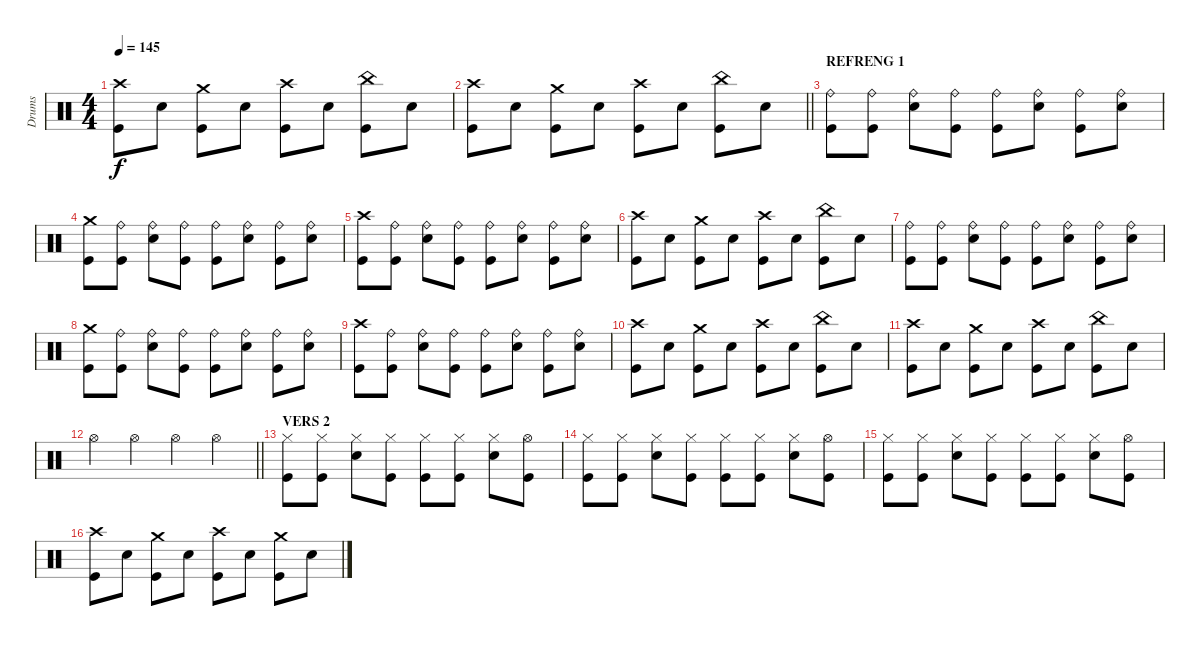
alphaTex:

\track ("Drums" "Drums") {instrument percussion}
\staff {score}
\articulation defaults
\ts (4 4)
\tempo 145
\clef neutral
\ks c
("Crash high (hit)" "Kick (hit)").8{dy f} "Snare (hit) 2".8 ("Crash medium (hit)" "Kick (hit)").8 "Snare (hit) 2".8 ("Crash high (hit)" "Kick (hit)").8 "Snare (hit) 2".8 ("China (hit)" "Kick (hit)").8 "Snare (hit) 2".8 |
\barLineRight lightlight
("Crash high (hit)" "Kick (hit)").8 "Snare (hit) 2".8 ("Crash medium (hit)" "Kick (hit)").8 "Snare (hit) 2".8 ("Crash high (hit)" "Kick (hit)").8 "Snare (hit) 2".8 ("China (hit)" "Kick (hit)").8 "Snare (hit) 2".8 |
\section ("" "REFRENG 1")
("Ride (bell)" "Kick (hit)").8 ("Ride (bell)" "Kick (hit)").8 ("Ride (bell)" "Snare (hit) 2").8 ("Ride (bell)" "Kick (hit)").8 ("Ride (bell)" "Kick (hit)").8 ("Ride (bell)" "Snare (hit) 2").8 ("Ride (bell)" "Kick (hit)").8 ("Ride (bell)" "Snare (hit) 2").8 |
("Crash medium (hit)" "Kick (hit)").8 ("Ride (bell)" "Kick (hit)").8 ("Ride (bell)" "Snare (hit) 2").8 ("Ride (bell)" "Kick (hit)").8 ("Ride (bell)" "Kick (hit)").8 ("Ride (bell)" "Snare (hit) 2").8 ("Ride (bell)" "Kick (hit)").8 ("Ride (bell)" "Snare (hit) 2").8 |
("Crash high (hit)" "Kick (hit)").8 ("Ride (bell)" "Kick (hit)").8 ("Ride (bell)" "Snare (hit) 2").8 ("Ride (bell)" "Kick (hit)").8 ("Ride (bell)" "Kick (hit)").8 ("Ride (bell)" "Snare (hit) 2").8 ("Ride (bell)" "Kick (hit)").8 ("Ride (bell)" "Snare (hit) 2").8 |
("Crash high (hit)" "Kick (hit)").8 "Snare (hit) 2".8 ("Crash medium (hit)" "Kick (hit)").8 "Snare (hit) 2".8 ("Crash high (hit)" "Kick (hit)").8 "Snare (hit) 2".8 ("China (hit)" "Kick (hit)").8 "Snare (hit) 2".8 |
("Ride (bell)" "Kick (hit)").8 ("Ride (bell)" "Kick (hit)").8 ("Ride (bell)" "Snare (hit) 2").8 ("Ride (bell)" "Kick (hit)").8 ("Ride (bell)" "Kick (hit)").8 ("Ride (bell)" "Snare (hit) 2").8 ("Ride (bell)" "Kick (hit)").8 ("Ride (bell)" "Snare (hit) 2").8 |
("Crash medium (hit)" "Kick (hit)").8 ("Ride (bell)" "Kick (hit)").8 ("Ride (bell)" "Snare (hit) 2").8 ("Ride (bell)" "Kick (hit)").8 ("Ride (bell)" "Kick (hit)").8 ("Ride (bell)" "Snare (hit) 2").8 ("Ride (bell)" "Kick (hit)").8 ("Ride (bell)" "Snare (hit) 2").8 |
("Crash high (hit)" "Kick (hit)").8 ("Ride (bell)" "Kick (hit)").8 ("Ride (bell)" "Snare (hit) 2").8 ("Ride (bell)" "Kick (hit)").8 ("Ride (bell)" "Kick (hit)").8 ("Ride (bell)" "Snare (hit) 2").8 ("Ride (bell)" "Kick (hit)").8 ("Ride (bell)" "Snare (hit) 2").8 |
("Crash high (hit)" "Kick (hit)").8 "Snare (hit) 2".8 ("Crash medium (hit)" "Kick (hit)").8 "Snare (hit) 2".8 ("Crash high (hit)" "Kick (hit)").8 "Snare (hit) 2".8 ("China (hit)" "Kick (hit)").8 "Snare (hit) 2".8 |
("Crash high (hit)" "Kick (hit)").8 "Snare (hit) 2".8 ("Crash medium (hit)" "Kick (hit)").8 "Snare (hit) 2".8 ("Crash high (hit)" "Kick (hit)").8 "Snare (hit) 2".8 ("China (hit)" "Kick (hit)").8 "Snare (hit) 2".8 |
\barLineRight lightlight "Hi-Hat (open)".4 "Hi-Hat (open)".4 "Hi-Hat (open)".4 "Hi-Hat (open)".4
|
\section ("" "VERS 2")
("Hi-Hat (closed)" "Kick (hit)").8 ("Hi-Hat (closed)" "Kick (hit)").8 ("Hi-Hat (closed)" "Snare (hit) 2").8 ("Hi-Hat (closed)" "Kick (hit)").8 ("Hi-Hat (closed)" "Kick (hit)").8 ("Hi-Hat (closed)" "Kick (hit)").8 ("Hi-Hat (closed)" "Snare (hit) 2").8 ("Hi-Hat (open)" "Kick (hit)").8 |
("Hi-Hat (closed)" "Kick (hit)").8 ("Hi-Hat (closed)" "Kick (hit)").8 ("Hi-Hat (closed)" "Snare (hit) 2").8 ("Hi-Hat (closed)" "Kick (hit)").8 ("Hi-Hat (closed)" "Kick (hit)").8 ("Hi-Hat (closed)" "Kick (hit)").8 ("Hi-Hat (closed)" "Snare (hit) 2").8 ("Hi-Hat (open)" "Kick (hit)").8 |
("Hi-Hat (closed)" "Kick (hit)").8 ("Hi-Hat (closed)" "Kick (hit)").8 ("Hi-Hat (closed)" "Snare (hit) 2").8 ("Hi-Hat (closed)" "Kick (hit)").8 ("Hi-Hat (closed)" "Kick (hit)").8 ("Hi-Hat (closed)" "Kick (hit)").8 ("Hi-Hat (closed)" "Snare (hit) 2").8 ("Hi-Hat (open)" "Kick (hit)").8 |
("Crash high (hit)" "Kick (hit)").8 "Snare (hit) 2".8 ("Crash medium (hit)" "Kick (hit)").8 "Snare (hit) 2".8 ("Crash high (hit)" "Kick (hit)").8 "Snare (hit) 2".8 ("Crash medium (hit)" "Kick (hit)").8 "Snare (hit) 2".8
